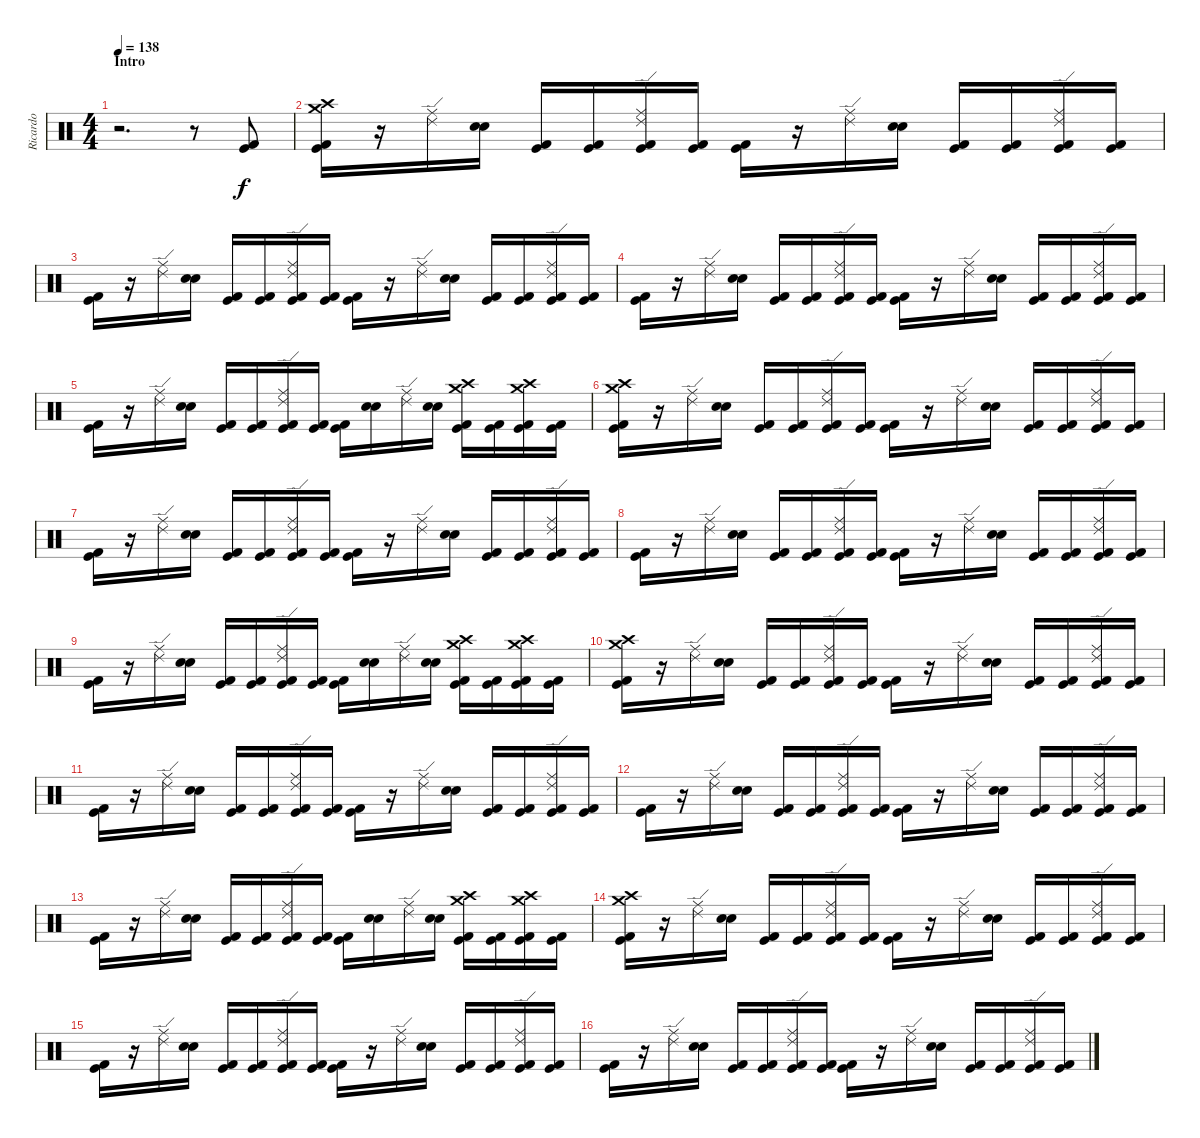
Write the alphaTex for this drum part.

\track ("Ricardo" "Ricardo") {instrument percussion}
\staff {score}
\articulation defaults
\ts (4 4)
\section ("" "Intro")
\tempo 138
\clef neutral
\ks c
r.2{d dy f} r.8 ("Kick (hit) 2" "Kick (hit)").8 |
("Crash high (hit)" "Crash medium (hit)" "Kick (hit) 2" "Kick (hit)").16 r.16 ("Ride (middle)" "Ride (edge) 2").16 ("Electric Snare (hit)" "Snare (hit) 2").16 ("Kick (hit) 2" "Kick (hit)").16 ("Kick (hit) 2" "Kick (hit)").16 ("Ride (middle)" "Ride (edge) 2" "Kick (hit) 2" "Kick (hit)").16 ("Kick (hit) 2" "Kick (hit)").16 ("Kick (hit) 2" "Kick (hit)").16 r.16 ("Ride (middle)" "Ride (edge) 2").16 ("Electric Snare (hit)" "Snare (hit) 2").16 ("Kick (hit) 2" "Kick (hit)").16 ("Kick (hit) 2" "Kick (hit)").16 ("Ride (middle)" "Ride (edge) 2" "Kick (hit) 2" "Kick (hit)").16 ("Kick (hit) 2" "Kick (hit)").16 |
("Kick (hit)" "Kick (hit) 2").16 r.16 ("Ride (middle)" "Ride (edge) 2").16 ("Electric Snare (hit)" "Snare (hit) 2").16 ("Kick (hit) 2" "Kick (hit)").16 ("Kick (hit) 2" "Kick (hit)").16 ("Ride (middle)" "Ride (edge) 2" "Kick (hit) 2" "Kick (hit)").16 ("Kick (hit) 2" "Kick (hit)").16 ("Kick (hit) 2" "Kick (hit)").16 r.16 ("Ride (middle)" "Ride (edge) 2").16 ("Electric Snare (hit)" "Snare (hit) 2").16 ("Kick (hit) 2" "Kick (hit)").16 ("Kick (hit) 2" "Kick (hit)").16 ("Ride (middle)" "Ride (edge) 2" "Kick (hit) 2" "Kick (hit)").16 ("Kick (hit) 2" "Kick (hit)").16 |
("Kick (hit)" "Kick (hit) 2").16 r.16 ("Ride (middle)" "Ride (edge) 2").16 ("Electric Snare (hit)" "Snare (hit) 2").16 ("Kick (hit) 2" "Kick (hit)").16 ("Kick (hit) 2" "Kick (hit)").16 ("Ride (middle)" "Ride (edge) 2" "Kick (hit) 2" "Kick (hit)").16 ("Kick (hit) 2" "Kick (hit)").16 ("Kick (hit) 2" "Kick (hit)").16 r.16 ("Ride (middle)" "Ride (edge) 2").16 ("Electric Snare (hit)" "Snare (hit) 2").16 ("Kick (hit) 2" "Kick (hit)").16 ("Kick (hit) 2" "Kick (hit)").16 ("Ride (middle)" "Ride (edge) 2" "Kick (hit) 2" "Kick (hit)").16 ("Kick (hit) 2" "Kick (hit)").16 |
("Kick (hit)" "Kick (hit) 2").16 r.16 ("Ride (middle)" "Ride (edge) 2").16 ("Electric Snare (hit)" "Snare (hit) 2").16 ("Kick (hit) 2" "Kick (hit)").16 ("Kick (hit) 2" "Kick (hit)").16 ("Ride (middle)" "Ride (edge) 2" "Kick (hit) 2" "Kick (hit)").16 ("Kick (hit) 2" "Kick (hit)").16 ("Kick (hit) 2" "Kick (hit)").16 ("Electric Snare (hit)" "Snare (hit) 2").16 ("Ride (middle)" "Ride (edge) 2").16 ("Electric Snare (hit)" "Snare (hit) 2").16 ("Crash high (hit)" "Crash medium (hit)" "Kick (hit) 2" "Kick (hit)").16 ("Kick (hit) 2" "Kick (hit)").16 ("Crash high (hit)" "Crash medium (hit)" "Kick (hit) 2" "Kick (hit)").16 ("Kick (hit) 2" "Kick (hit)").16 |
("Crash high (hit)" "Crash medium (hit)" "Kick (hit) 2" "Kick (hit)").16 r.16 ("Ride (middle)" "Ride (edge) 2").16 ("Electric Snare (hit)" "Snare (hit) 2").16 ("Kick (hit) 2" "Kick (hit)").16 ("Kick (hit) 2" "Kick (hit)").16 ("Ride (middle)" "Ride (edge) 2" "Kick (hit) 2" "Kick (hit)").16 ("Kick (hit) 2" "Kick (hit)").16 ("Kick (hit) 2" "Kick (hit)").16 r.16 ("Ride (middle)" "Ride (edge) 2").16 ("Electric Snare (hit)" "Snare (hit) 2").16 ("Kick (hit) 2" "Kick (hit)").16 ("Kick (hit) 2" "Kick (hit)").16 ("Ride (middle)" "Ride (edge) 2" "Kick (hit) 2" "Kick (hit)").16 ("Kick (hit) 2" "Kick (hit)").16 |
("Kick (hit)" "Kick (hit) 2").16 r.16 ("Ride (middle)" "Ride (edge) 2").16 ("Electric Snare (hit)" "Snare (hit) 2").16 ("Kick (hit) 2" "Kick (hit)").16 ("Kick (hit) 2" "Kick (hit)").16 ("Ride (middle)" "Ride (edge) 2" "Kick (hit) 2" "Kick (hit)").16 ("Kick (hit) 2" "Kick (hit)").16 ("Kick (hit) 2" "Kick (hit)").16 r.16 ("Ride (middle)" "Ride (edge) 2").16 ("Electric Snare (hit)" "Snare (hit) 2").16 ("Kick (hit) 2" "Kick (hit)").16 ("Kick (hit) 2" "Kick (hit)").16 ("Ride (middle)" "Ride (edge) 2" "Kick (hit) 2" "Kick (hit)").16 ("Kick (hit) 2" "Kick (hit)").16 |
("Kick (hit)" "Kick (hit) 2").16 r.16 ("Ride (middle)" "Ride (edge) 2").16 ("Electric Snare (hit)" "Snare (hit) 2").16 ("Kick (hit) 2" "Kick (hit)").16 ("Kick (hit) 2" "Kick (hit)").16 ("Ride (middle)" "Ride (edge) 2" "Kick (hit) 2" "Kick (hit)").16 ("Kick (hit) 2" "Kick (hit)").16 ("Kick (hit) 2" "Kick (hit)").16 r.16 ("Ride (middle)" "Ride (edge) 2").16 ("Electric Snare (hit)" "Snare (hit) 2").16 ("Kick (hit) 2" "Kick (hit)").16 ("Kick (hit) 2" "Kick (hit)").16 ("Ride (middle)" "Ride (edge) 2" "Kick (hit) 2" "Kick (hit)").16 ("Kick (hit) 2" "Kick (hit)").16 |
("Kick (hit)" "Kick (hit) 2").16 r.16 ("Ride (middle)" "Ride (edge) 2").16 ("Electric Snare (hit)" "Snare (hit) 2").16 ("Kick (hit) 2" "Kick (hit)").16 ("Kick (hit) 2" "Kick (hit)").16 ("Ride (middle)" "Ride (edge) 2" "Kick (hit) 2" "Kick (hit)").16 ("Kick (hit) 2" "Kick (hit)").16 ("Kick (hit) 2" "Kick (hit)").16 ("Electric Snare (hit)" "Snare (hit) 2").16 ("Ride (middle)" "Ride (edge) 2").16 ("Electric Snare (hit)" "Snare (hit) 2").16 ("Crash high (hit)" "Crash medium (hit)" "Kick (hit) 2" "Kick (hit)").16 ("Kick (hit) 2" "Kick (hit)").16 ("Crash high (hit)" "Crash medium (hit)" "Kick (hit) 2" "Kick (hit)").16 ("Kick (hit) 2" "Kick (hit)").16 |
("Crash high (hit)" "Crash medium (hit)" "Kick (hit) 2" "Kick (hit)").16 r.16 ("Ride (middle)" "Ride (edge) 2").16 ("Electric Snare (hit)" "Snare (hit) 2").16 ("Kick (hit) 2" "Kick (hit)").16 ("Kick (hit) 2" "Kick (hit)").16 ("Ride (middle)" "Ride (edge) 2" "Kick (hit) 2" "Kick (hit)").16 ("Kick (hit) 2" "Kick (hit)").16 ("Kick (hit) 2" "Kick (hit)").16 r.16 ("Ride (middle)" "Ride (edge) 2").16 ("Electric Snare (hit)" "Snare (hit) 2").16 ("Kick (hit) 2" "Kick (hit)").16 ("Kick (hit) 2" "Kick (hit)").16 ("Ride (middle)" "Ride (edge) 2" "Kick (hit) 2" "Kick (hit)").16 ("Kick (hit) 2" "Kick (hit)").16 |
("Kick (hit)" "Kick (hit) 2").16 r.16 ("Ride (middle)" "Ride (edge) 2").16 ("Electric Snare (hit)" "Snare (hit) 2").16 ("Kick (hit) 2" "Kick (hit)").16 ("Kick (hit) 2" "Kick (hit)").16 ("Ride (middle)" "Ride (edge) 2" "Kick (hit) 2" "Kick (hit)").16 ("Kick (hit) 2" "Kick (hit)").16 ("Kick (hit) 2" "Kick (hit)").16 r.16 ("Ride (middle)" "Ride (edge) 2").16 ("Electric Snare (hit)" "Snare (hit) 2").16 ("Kick (hit) 2" "Kick (hit)").16 ("Kick (hit) 2" "Kick (hit)").16 ("Ride (middle)" "Ride (edge) 2" "Kick (hit) 2" "Kick (hit)").16 ("Kick (hit) 2" "Kick (hit)").16 |
("Kick (hit)" "Kick (hit) 2").16 r.16 ("Ride (middle)" "Ride (edge) 2").16 ("Electric Snare (hit)" "Snare (hit) 2").16 ("Kick (hit) 2" "Kick (hit)").16 ("Kick (hit) 2" "Kick (hit)").16 ("Ride (middle)" "Ride (edge) 2" "Kick (hit) 2" "Kick (hit)").16 ("Kick (hit) 2" "Kick (hit)").16 ("Kick (hit) 2" "Kick (hit)").16 r.16 ("Ride (middle)" "Ride (edge) 2").16 ("Electric Snare (hit)" "Snare (hit) 2").16 ("Kick (hit) 2" "Kick (hit)").16 ("Kick (hit) 2" "Kick (hit)").16 ("Ride (middle)" "Ride (edge) 2" "Kick (hit) 2" "Kick (hit)").16 ("Kick (hit) 2" "Kick (hit)").16 |
("Kick (hit)" "Kick (hit) 2").16 r.16 ("Ride (middle)" "Ride (edge) 2").16 ("Electric Snare (hit)" "Snare (hit) 2").16 ("Kick (hit) 2" "Kick (hit)").16 ("Kick (hit) 2" "Kick (hit)").16 ("Ride (middle)" "Ride (edge) 2" "Kick (hit) 2" "Kick (hit)").16 ("Kick (hit) 2" "Kick (hit)").16 ("Kick (hit) 2" "Kick (hit)").16 ("Electric Snare (hit)" "Snare (hit) 2").16 ("Ride (middle)" "Ride (edge) 2").16 ("Electric Snare (hit)" "Snare (hit) 2").16 ("Crash high (hit)" "Crash medium (hit)" "Kick (hit) 2" "Kick (hit)").16 ("Kick (hit) 2" "Kick (hit)").16 ("Crash high (hit)" "Crash medium (hit)" "Kick (hit) 2" "Kick (hit)").16 ("Kick (hit) 2" "Kick (hit)").16 |
("Crash high (hit)" "Crash medium (hit)" "Kick (hit) 2" "Kick (hit)").16 r.16 ("Ride (middle)" "Ride (edge) 2").16 ("Electric Snare (hit)" "Snare (hit) 2").16 ("Kick (hit) 2" "Kick (hit)").16 ("Kick (hit) 2" "Kick (hit)").16 ("Ride (middle)" "Ride (edge) 2" "Kick (hit) 2" "Kick (hit)").16 ("Kick (hit) 2" "Kick (hit)").16 ("Kick (hit) 2" "Kick (hit)").16 r.16 ("Ride (middle)" "Ride (edge) 2").16 ("Electric Snare (hit)" "Snare (hit) 2").16 ("Kick (hit) 2" "Kick (hit)").16 ("Kick (hit) 2" "Kick (hit)").16 ("Ride (middle)" "Ride (edge) 2" "Kick (hit) 2" "Kick (hit)").16 ("Kick (hit) 2" "Kick (hit)").16 |
("Kick (hit)" "Kick (hit) 2").16 r.16 ("Ride (middle)" "Ride (edge) 2").16 ("Electric Snare (hit)" "Snare (hit) 2").16 ("Kick (hit) 2" "Kick (hit)").16 ("Kick (hit) 2" "Kick (hit)").16 ("Ride (middle)" "Ride (edge) 2" "Kick (hit) 2" "Kick (hit)").16 ("Kick (hit) 2" "Kick (hit)").16 ("Kick (hit) 2" "Kick (hit)").16 r.16 ("Ride (middle)" "Ride (edge) 2").16 ("Electric Snare (hit)" "Snare (hit) 2").16 ("Kick (hit) 2" "Kick (hit)").16 ("Kick (hit) 2" "Kick (hit)").16 ("Ride (middle)" "Ride (edge) 2" "Kick (hit) 2" "Kick (hit)").16 ("Kick (hit) 2" "Kick (hit)").16 |
("Kick (hit)" "Kick (hit) 2").16 r.16 ("Ride (middle)" "Ride (edge) 2").16 ("Electric Snare (hit)" "Snare (hit) 2").16 ("Kick (hit) 2" "Kick (hit)").16 ("Kick (hit) 2" "Kick (hit)").16 ("Ride (middle)" "Ride (edge) 2" "Kick (hit) 2" "Kick (hit)").16 ("Kick (hit) 2" "Kick (hit)").16 ("Kick (hit) 2" "Kick (hit)").16 r.16 ("Ride (middle)" "Ride (edge) 2").16 ("Electric Snare (hit)" "Snare (hit) 2").16 ("Kick (hit) 2" "Kick (hit)").16 ("Kick (hit) 2" "Kick (hit)").16 ("Ride (middle)" "Ride (edge) 2" "Kick (hit) 2" "Kick (hit)").16 ("Kick (hit) 2" "Kick (hit)").16
